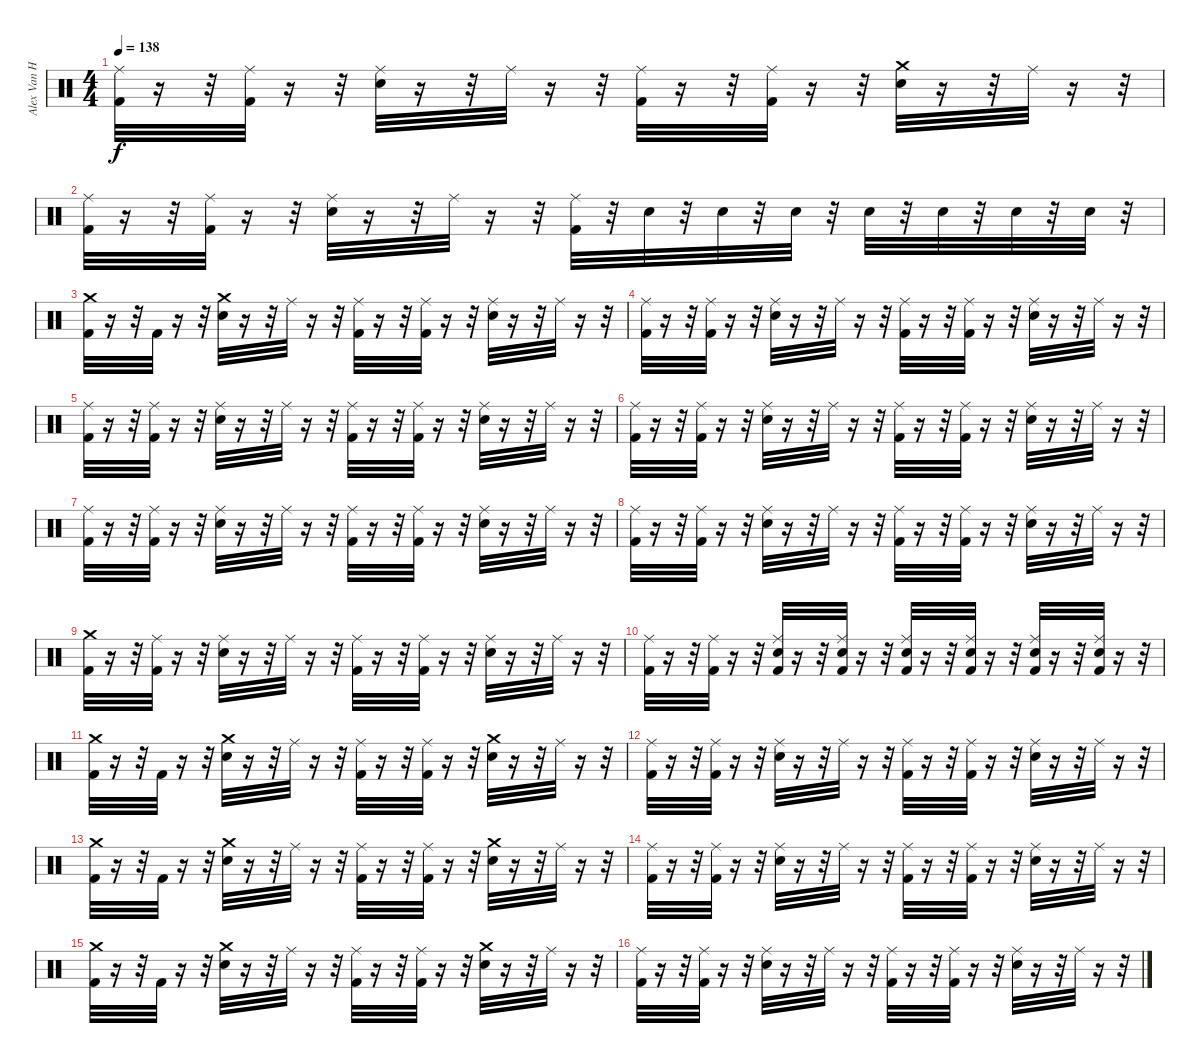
\track ("Alex Van Halen (Drums)" "Alex Van H") {instrument percussion}
\staff {score}
\articulation defaults
\ts (4 4)
\tempo 138
\clef neutral
\ks c
("Kick (hit) 2" "Ride (middle)").32{dy f} r.16 r.32 ("Kick (hit) 2" "Ride (middle)").32 r.16 r.32 ("Snare (hit) 2" "Ride (middle)").32 r.16 r.32 "Ride (middle)".32 r.16 r.32 ("Kick (hit) 2" "Ride (middle)").32 r.16 r.32 ("Kick (hit) 2" "Ride (middle)").32 r.16 r.32 ("Snare (hit) 2" "Crash medium (hit)").32 r.16 r.32 "Ride (middle)".32 r.16 r.32 |
("Kick (hit) 2" "Ride (middle)").32 r.16 r.32 ("Kick (hit) 2" "Ride (middle)").32 r.16 r.32 ("Snare (hit) 2" "Ride (middle)").32 r.16 r.32 "Ride (middle)".32 r.16 r.32 ("Kick (hit) 2" "Ride (middle)").32 r.32 "Snare (hit) 2".32 r.32 "Snare (hit) 2".32 r.32 "Snare (hit) 2".32 r.32 "Snare (hit) 2".32 r.32 "Snare (hit) 2".32 r.32 "Snare (hit) 2".32 r.32 "Snare (hit) 2".32 r.32 |
("Kick (hit) 2" "Crash medium (hit)").32 r.16 r.32 "Kick (hit) 2".32 r.16 r.32 ("Snare (hit) 2" "Crash medium (hit)").32 r.16 r.32 "Ride (middle)".32 r.16 r.32 ("Kick (hit) 2" "Ride (middle)").32 r.16 r.32 ("Kick (hit) 2" "Ride (middle)").32 r.16 r.32 ("Snare (hit) 2" "Ride (middle)").32 r.16 r.32 "Ride (middle)".32 r.16 r.32 |
("Kick (hit) 2" "Ride (middle)").32 r.16 r.32 ("Kick (hit) 2" "Ride (middle)").32 r.16 r.32 ("Snare (hit) 2" "Ride (middle)").32 r.16 r.32 "Ride (middle)".32 r.16 r.32 ("Kick (hit) 2" "Ride (middle)").32 r.16 r.32 ("Kick (hit) 2" "Ride (middle)").32 r.16 r.32 ("Snare (hit) 2" "Ride (middle)").32 r.16 r.32 "Ride (middle)".32 r.16 r.32 |
("Kick (hit) 2" "Ride (middle)").32 r.16 r.32 ("Kick (hit) 2" "Ride (middle)").32 r.16 r.32 ("Snare (hit) 2" "Ride (middle)").32 r.16 r.32 "Ride (middle)".32 r.16 r.32 ("Kick (hit) 2" "Ride (middle)").32 r.16 r.32 ("Kick (hit) 2" "Ride (middle)").32 r.16 r.32 ("Snare (hit) 2" "Ride (middle)").32 r.16 r.32 "Ride (middle)".32 r.16 r.32 |
("Kick (hit) 2" "Ride (middle)").32 r.16 r.32 ("Kick (hit) 2" "Ride (middle)").32 r.16 r.32 ("Snare (hit) 2" "Ride (middle)").32 r.16 r.32 "Ride (middle)".32 r.16 r.32 ("Kick (hit) 2" "Ride (middle)").32 r.16 r.32 ("Kick (hit) 2" "Ride (middle)").32 r.16 r.32 ("Snare (hit) 2" "Ride (middle)").32 r.16 r.32 "Ride (middle)".32 r.16 r.32 |
("Kick (hit) 2" "Ride (middle)").32 r.16 r.32 ("Kick (hit) 2" "Ride (middle)").32 r.16 r.32 ("Snare (hit) 2" "Ride (middle)").32 r.16 r.32 "Ride (middle)".32 r.16 r.32 ("Kick (hit) 2" "Ride (middle)").32 r.16 r.32 ("Kick (hit) 2" "Ride (middle)").32 r.16 r.32 ("Snare (hit) 2" "Ride (middle)").32 r.16 r.32 "Ride (middle)".32 r.16 r.32 |
("Kick (hit) 2" "Ride (middle)").32 r.16 r.32 ("Kick (hit) 2" "Ride (middle)").32 r.16 r.32 ("Snare (hit) 2" "Ride (middle)").32 r.16 r.32 "Ride (middle)".32 r.16 r.32 ("Kick (hit) 2" "Ride (middle)").32 r.16 r.32 ("Kick (hit) 2" "Ride (middle)").32 r.16 r.32 ("Snare (hit) 2" "Ride (middle)").32 r.16 r.32 "Ride (middle)".32 r.16 r.32 |
("Kick (hit) 2" "Crash medium (hit)").32 r.16 r.32 ("Kick (hit) 2" "Ride (middle)").32 r.16 r.32 ("Snare (hit) 2" "Ride (middle)").32 r.16 r.32 "Ride (middle)".32 r.16 r.32 ("Kick (hit) 2" "Ride (middle)").32 r.16 r.32 ("Kick (hit) 2" "Ride (middle)").32 r.16 r.32 ("Snare (hit) 2" "Ride (middle)").32 r.16 r.32 "Ride (middle)".32 r.16 r.32 |
("Ride (middle)" "Kick (hit) 2").32 r.16 r.32 ("Ride (middle)" "Kick (hit) 2").32 r.16 r.32 ("Ride (middle)" "Snare (hit) 2" "Kick (hit) 2").32 r.16 r.32 ("Ride (middle)" "Snare (hit) 2" "Kick (hit) 2").32 r.16 r.32 ("Ride (middle)" "Snare (hit) 2" "Kick (hit) 2").32 r.16 r.32 ("Ride (middle)" "Snare (hit) 2" "Kick (hit) 2").32 r.16 r.32 ("Ride (middle)" "Snare (hit) 2" "Kick (hit) 2").32 r.16 r.32 ("Ride (middle)" "Snare (hit) 2" "Kick (hit) 2").32 r.16 r.32 |
("Kick (hit) 2" "Crash medium (hit)").32 r.16 r.32 "Kick (hit) 2".32 r.16 r.32 ("Snare (hit) 2" "Crash medium (hit)").32 r.16 r.32 "Ride (middle)".32 r.16 r.32 ("Kick (hit) 2" "Ride (middle)").32 r.16 r.32 ("Kick (hit) 2" "Ride (middle)").32 r.16 r.32 ("Snare (hit) 2" "Crash medium (hit)").32 r.16 r.32 "Ride (middle)".32 r.16 r.32 |
("Kick (hit) 2" "Ride (middle)").32 r.16 r.32 ("Kick (hit) 2" "Ride (middle)").32 r.16 r.32 ("Snare (hit) 2" "Ride (middle)").32 r.16 r.32 "Ride (middle)".32 r.16 r.32 ("Kick (hit) 2" "Ride (middle)").32 r.16 r.32 ("Kick (hit) 2" "Ride (middle)").32 r.16 r.32 ("Snare (hit) 2" "Ride (middle)").32 r.16 r.32 "Ride (middle)".32 r.16 r.32 |
("Kick (hit) 2" "Crash medium (hit)").32 r.16 r.32 "Kick (hit) 2".32 r.16 r.32 ("Snare (hit) 2" "Crash medium (hit)").32 r.16 r.32 "Ride (middle)".32 r.16 r.32 ("Kick (hit) 2" "Ride (middle)").32 r.16 r.32 ("Kick (hit) 2" "Ride (middle)").32 r.16 r.32 ("Snare (hit) 2" "Crash medium (hit)").32 r.16 r.32 "Ride (middle)".32 r.16 r.32 |
("Kick (hit) 2" "Ride (middle)").32 r.16 r.32 ("Kick (hit) 2" "Ride (middle)").32 r.16 r.32 ("Snare (hit) 2" "Ride (middle)").32 r.16 r.32 "Ride (middle)".32 r.16 r.32 ("Kick (hit) 2" "Ride (middle)").32 r.16 r.32 ("Kick (hit) 2" "Ride (middle)").32 r.16 r.32 ("Snare (hit) 2" "Ride (middle)").32 r.16 r.32 "Ride (middle)".32 r.16 r.32 |
("Kick (hit) 2" "Crash medium (hit)").32 r.16 r.32 "Kick (hit) 2".32 r.16 r.32 ("Snare (hit) 2" "Crash medium (hit)").32 r.16 r.32 "Ride (middle)".32 r.16 r.32 ("Kick (hit) 2" "Ride (middle)").32 r.16 r.32 ("Kick (hit) 2" "Ride (middle)").32 r.16 r.32 ("Snare (hit) 2" "Crash medium (hit)").32 r.16 r.32 "Ride (middle)".32 r.16 r.32 |
("Kick (hit) 2" "Ride (middle)").32 r.16 r.32 ("Kick (hit) 2" "Ride (middle)").32 r.16 r.32 ("Snare (hit) 2" "Ride (middle)").32 r.16 r.32 "Ride (middle)".32 r.16 r.32 ("Kick (hit) 2" "Ride (middle)").32 r.16 r.32 ("Kick (hit) 2" "Ride (middle)").32 r.16 r.32 ("Snare (hit) 2" "Ride (middle)").32 r.16 r.32 "Ride (middle)".32 r.16 r.32
